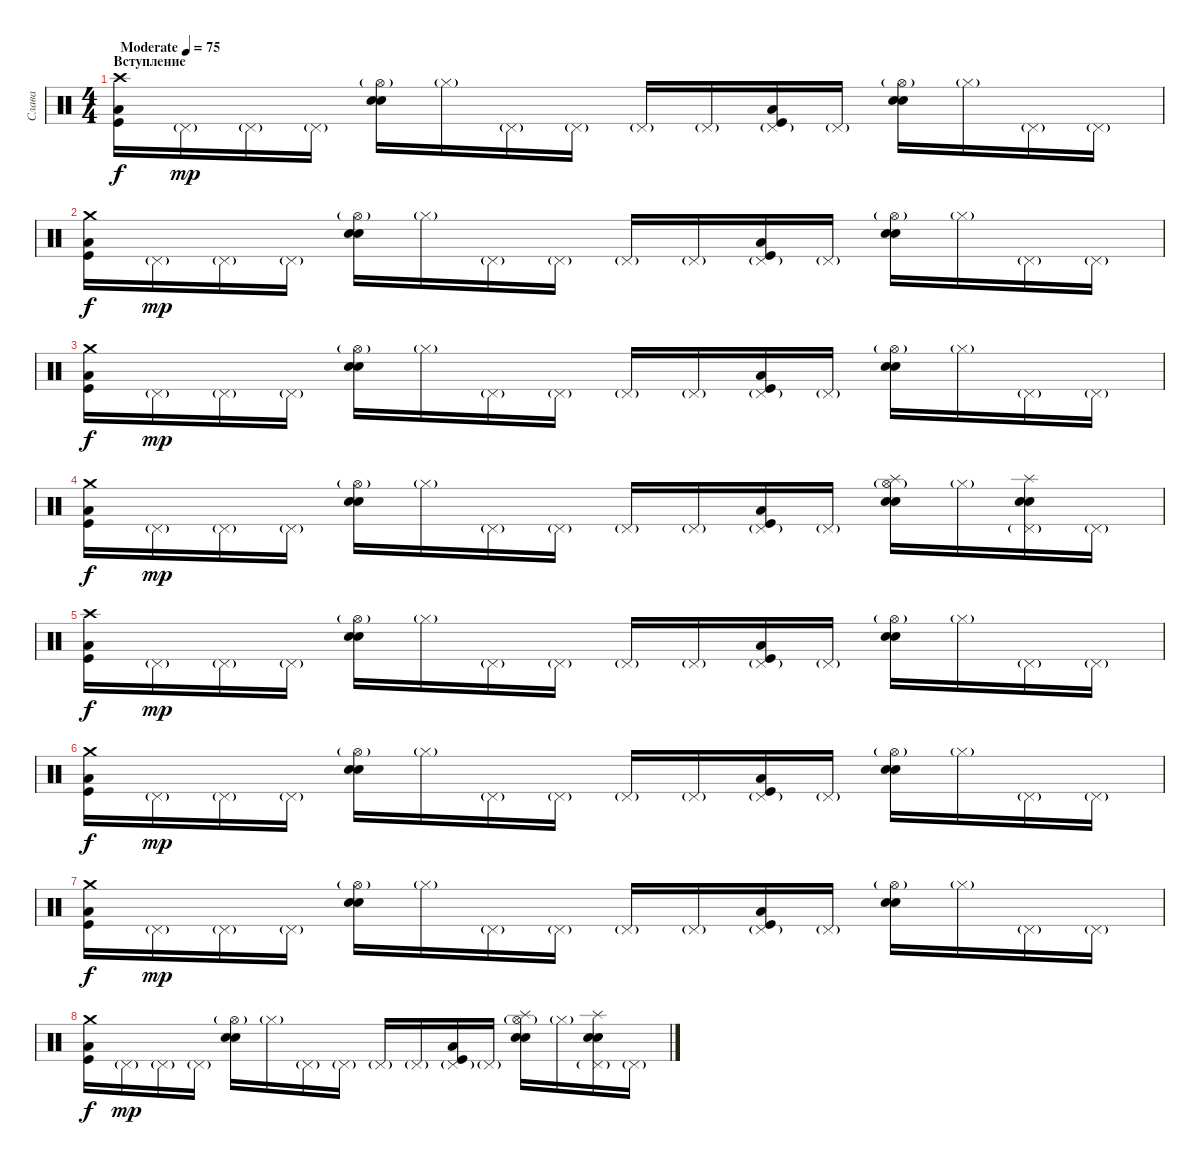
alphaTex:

\track ("Слава" "Слава") {instrument percussion}
\staff {score}
\articulation defaults
\ts (4 4)
\section ("" "Вступление")
\tempo (75 "Moderate")
\clef neutral
\ks c
("Crash high (hit)" "Low Tom (hit)" "Kick (hit)").16{dy f} "Pedal Hi-Hat (hit)"{g}.16{dy mp} "Pedal Hi-Hat (hit)"{g}.16 "Pedal Hi-Hat (hit)"{g}.16 ("Hi-Hat (open)"{g} "Electric Snare (hit)" "Snare (hit) 2").16 "Hi-Hat (closed)"{g}.16 "Pedal Hi-Hat (hit)"{g}.16 "Pedal Hi-Hat (hit)"{g}.16 "Pedal Hi-Hat (hit)"{g}.16 "Pedal Hi-Hat (hit)"{g}.16 ("Pedal Hi-Hat (hit)"{g} "Low Tom (hit)" "Kick (hit)").16 "Pedal Hi-Hat (hit)"{g}.16 ("Hi-Hat (open)"{g} "Electric Snare (hit)" "Snare (hit) 2").16 "Hi-Hat (closed)"{g}.16 "Pedal Hi-Hat (hit)"{g}.16 "Pedal Hi-Hat (hit)"{g}.16 |
("Crash medium (hit)" "Low Tom (hit)" "Kick (hit)").16{dy f} "Pedal Hi-Hat (hit)"{g}.16{dy mp} "Pedal Hi-Hat (hit)"{g}.16 "Pedal Hi-Hat (hit)"{g}.16 ("Hi-Hat (open)"{g} "Electric Snare (hit)" "Snare (hit) 2").16 "Hi-Hat (closed)"{g}.16 "Pedal Hi-Hat (hit)"{g}.16 "Pedal Hi-Hat (hit)"{g}.16 "Pedal Hi-Hat (hit)"{g}.16 "Pedal Hi-Hat (hit)"{g}.16 ("Pedal Hi-Hat (hit)"{g} "Low Tom (hit)" "Kick (hit)").16 "Pedal Hi-Hat (hit)"{g}.16 ("Hi-Hat (open)"{g} "Electric Snare (hit)" "Snare (hit) 2").16 "Hi-Hat (closed)"{g}.16 "Pedal Hi-Hat (hit)"{g}.16 "Pedal Hi-Hat (hit)"{g}.16 |
("Crash medium (hit)" "Low Tom (hit)" "Kick (hit)").16{dy f} "Pedal Hi-Hat (hit)"{g}.16{dy mp} "Pedal Hi-Hat (hit)"{g}.16 "Pedal Hi-Hat (hit)"{g}.16 ("Hi-Hat (open)"{g} "Electric Snare (hit)" "Snare (hit) 2").16 "Hi-Hat (closed)"{g}.16 "Pedal Hi-Hat (hit)"{g}.16 "Pedal Hi-Hat (hit)"{g}.16 "Pedal Hi-Hat (hit)"{g}.16 "Pedal Hi-Hat (hit)"{g}.16 ("Pedal Hi-Hat (hit)"{g} "Low Tom (hit)" "Kick (hit)").16 "Pedal Hi-Hat (hit)"{g}.16 ("Hi-Hat (open)"{g} "Electric Snare (hit)" "Snare (hit) 2").16 "Hi-Hat (closed)"{g}.16 "Pedal Hi-Hat (hit)"{g}.16 "Pedal Hi-Hat (hit)"{g}.16 |
("Crash medium (hit)" "Low Tom (hit)" "Kick (hit)").16{dy f} "Pedal Hi-Hat (hit)"{g}.16{dy mp} "Pedal Hi-Hat (hit)"{g}.16 "Pedal Hi-Hat (hit)"{g}.16 ("Hi-Hat (open)"{g} "Electric Snare (hit)" "Snare (hit) 2").16 "Hi-Hat (closed)"{g}.16 "Pedal Hi-Hat (hit)"{g}.16 "Pedal Hi-Hat (hit)"{g}.16 "Pedal Hi-Hat (hit)"{g}.16 "Pedal Hi-Hat (hit)"{g}.16 ("Pedal Hi-Hat (hit)"{g} "Low Tom (hit)" "Kick (hit)").16 "Pedal Hi-Hat (hit)"{g}.16 ("Hi-Hat (open)"{g} "Splash (hit)" "Electric Snare (hit)" "Snare (hit) 2").16 "Hi-Hat (closed)"{g}.16 ("Pedal Hi-Hat (hit)"{g} "Splash (hit)" "Electric Snare (hit)" "Snare (hit) 2").16 "Pedal Hi-Hat (hit)"{g}.16 |
("Crash high (hit)" "Low Tom (hit)" "Kick (hit)").16{dy f} "Pedal Hi-Hat (hit)"{g}.16{dy mp} "Pedal Hi-Hat (hit)"{g}.16 "Pedal Hi-Hat (hit)"{g}.16 ("Hi-Hat (open)"{g} "Electric Snare (hit)" "Snare (hit) 2").16 "Hi-Hat (closed)"{g}.16 "Pedal Hi-Hat (hit)"{g}.16 "Pedal Hi-Hat (hit)"{g}.16 "Pedal Hi-Hat (hit)"{g}.16 "Pedal Hi-Hat (hit)"{g}.16 ("Pedal Hi-Hat (hit)"{g} "Low Tom (hit)" "Kick (hit)").16 "Pedal Hi-Hat (hit)"{g}.16 ("Hi-Hat (open)"{g} "Electric Snare (hit)" "Snare (hit) 2").16 "Hi-Hat (closed)"{g}.16 "Pedal Hi-Hat (hit)"{g}.16 "Pedal Hi-Hat (hit)"{g}.16 |
("Crash medium (hit)" "Low Tom (hit)" "Kick (hit)").16{dy f} "Pedal Hi-Hat (hit)"{g}.16{dy mp} "Pedal Hi-Hat (hit)"{g}.16 "Pedal Hi-Hat (hit)"{g}.16 ("Hi-Hat (open)"{g} "Electric Snare (hit)" "Snare (hit) 2").16 "Hi-Hat (closed)"{g}.16 "Pedal Hi-Hat (hit)"{g}.16 "Pedal Hi-Hat (hit)"{g}.16 "Pedal Hi-Hat (hit)"{g}.16 "Pedal Hi-Hat (hit)"{g}.16 ("Pedal Hi-Hat (hit)"{g} "Low Tom (hit)" "Kick (hit)").16 "Pedal Hi-Hat (hit)"{g}.16 ("Hi-Hat (open)"{g} "Electric Snare (hit)" "Snare (hit) 2").16 "Hi-Hat (closed)"{g}.16 "Pedal Hi-Hat (hit)"{g}.16 "Pedal Hi-Hat (hit)"{g}.16 |
("Crash medium (hit)" "Low Tom (hit)" "Kick (hit)").16{dy f} "Pedal Hi-Hat (hit)"{g}.16{dy mp} "Pedal Hi-Hat (hit)"{g}.16 "Pedal Hi-Hat (hit)"{g}.16 ("Hi-Hat (open)"{g} "Electric Snare (hit)" "Snare (hit) 2").16 "Hi-Hat (closed)"{g}.16 "Pedal Hi-Hat (hit)"{g}.16 "Pedal Hi-Hat (hit)"{g}.16 "Pedal Hi-Hat (hit)"{g}.16 "Pedal Hi-Hat (hit)"{g}.16 ("Pedal Hi-Hat (hit)"{g} "Low Tom (hit)" "Kick (hit)").16 "Pedal Hi-Hat (hit)"{g}.16 ("Hi-Hat (open)"{g} "Electric Snare (hit)" "Snare (hit) 2").16 "Hi-Hat (closed)"{g}.16 "Pedal Hi-Hat (hit)"{g}.16 "Pedal Hi-Hat (hit)"{g}.16 |
("Crash medium (hit)" "Low Tom (hit)" "Kick (hit)").16{dy f} "Pedal Hi-Hat (hit)"{g}.16{dy mp} "Pedal Hi-Hat (hit)"{g}.16 "Pedal Hi-Hat (hit)"{g}.16 ("Hi-Hat (open)"{g} "Electric Snare (hit)" "Snare (hit) 2").16 "Hi-Hat (closed)"{g}.16 "Pedal Hi-Hat (hit)"{g}.16 "Pedal Hi-Hat (hit)"{g}.16 "Pedal Hi-Hat (hit)"{g}.16 "Pedal Hi-Hat (hit)"{g}.16 ("Pedal Hi-Hat (hit)"{g} "Low Tom (hit)" "Kick (hit)").16 "Pedal Hi-Hat (hit)"{g}.16 ("Hi-Hat (open)"{g} "Splash (hit)" "Electric Snare (hit)" "Snare (hit) 2").16 "Hi-Hat (closed)"{g}.16 ("Pedal Hi-Hat (hit)"{g} "Splash (hit)" "Electric Snare (hit)" "Snare (hit) 2").16 "Pedal Hi-Hat (hit)"{g}.16
